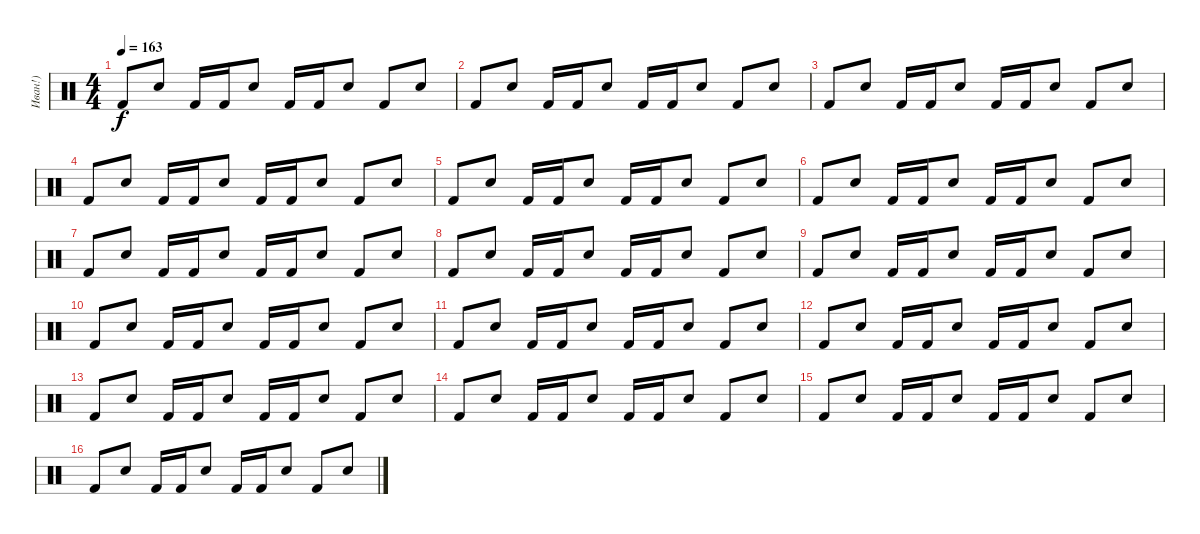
\track ("Иван!)" "Иван!)") {instrument percussion}
\staff {score}
\articulation defaults
\ts (4 4)
\tempo 163
\clef neutral
\ks c "Kick (hit) 2".8{dy f} "Electric Snare (hit)".8 "Kick (hit) 2".16 "Kick (hit) 2".16 "Electric Snare (hit)".8 "Kick (hit) 2".16 "Kick (hit) 2".16 "Electric Snare (hit)".8 "Kick (hit) 2".8 "Electric Snare (hit)".8
|
"Kick (hit) 2".8 "Electric Snare (hit)".8 "Kick (hit) 2".16 "Kick (hit) 2".16 "Electric Snare (hit)".8 "Kick (hit) 2".16 "Kick (hit) 2".16 "Electric Snare (hit)".8 "Kick (hit) 2".8 "Electric Snare (hit)".8 |
"Kick (hit) 2".8 "Electric Snare (hit)".8 "Kick (hit) 2".16 "Kick (hit) 2".16 "Electric Snare (hit)".8 "Kick (hit) 2".16 "Kick (hit) 2".16 "Electric Snare (hit)".8 "Kick (hit) 2".8 "Electric Snare (hit)".8 |
"Kick (hit) 2".8 "Electric Snare (hit)".8 "Kick (hit) 2".16 "Kick (hit) 2".16 "Electric Snare (hit)".8 "Kick (hit) 2".16 "Kick (hit) 2".16 "Electric Snare (hit)".8 "Kick (hit) 2".8 "Electric Snare (hit)".8 |
"Kick (hit) 2".8 "Electric Snare (hit)".8 "Kick (hit) 2".16 "Kick (hit) 2".16 "Electric Snare (hit)".8 "Kick (hit) 2".16 "Kick (hit) 2".16 "Electric Snare (hit)".8 "Kick (hit) 2".8 "Electric Snare (hit)".8 |
"Kick (hit) 2".8 "Electric Snare (hit)".8 "Kick (hit) 2".16 "Kick (hit) 2".16 "Electric Snare (hit)".8 "Kick (hit) 2".16 "Kick (hit) 2".16 "Electric Snare (hit)".8 "Kick (hit) 2".8 "Electric Snare (hit)".8 |
"Kick (hit) 2".8 "Electric Snare (hit)".8 "Kick (hit) 2".16 "Kick (hit) 2".16 "Electric Snare (hit)".8 "Kick (hit) 2".16 "Kick (hit) 2".16 "Electric Snare (hit)".8 "Kick (hit) 2".8 "Electric Snare (hit)".8 |
"Kick (hit) 2".8 "Electric Snare (hit)".8 "Kick (hit) 2".16 "Kick (hit) 2".16 "Electric Snare (hit)".8 "Kick (hit) 2".16 "Kick (hit) 2".16 "Electric Snare (hit)".8 "Kick (hit) 2".8 "Electric Snare (hit)".8 |
"Kick (hit) 2".8 "Electric Snare (hit)".8 "Kick (hit) 2".16 "Kick (hit) 2".16 "Electric Snare (hit)".8 "Kick (hit) 2".16 "Kick (hit) 2".16 "Electric Snare (hit)".8 "Kick (hit) 2".8 "Electric Snare (hit)".8 |
"Kick (hit) 2".8 "Electric Snare (hit)".8 "Kick (hit) 2".16 "Kick (hit) 2".16 "Electric Snare (hit)".8 "Kick (hit) 2".16 "Kick (hit) 2".16 "Electric Snare (hit)".8 "Kick (hit) 2".8 "Electric Snare (hit)".8 |
"Kick (hit) 2".8 "Electric Snare (hit)".8 "Kick (hit) 2".16 "Kick (hit) 2".16 "Electric Snare (hit)".8 "Kick (hit) 2".16 "Kick (hit) 2".16 "Electric Snare (hit)".8 "Kick (hit) 2".8 "Electric Snare (hit)".8 |
"Kick (hit) 2".8 "Electric Snare (hit)".8 "Kick (hit) 2".16 "Kick (hit) 2".16 "Electric Snare (hit)".8 "Kick (hit) 2".16 "Kick (hit) 2".16 "Electric Snare (hit)".8 "Kick (hit) 2".8 "Electric Snare (hit)".8 |
"Kick (hit) 2".8 "Electric Snare (hit)".8 "Kick (hit) 2".16 "Kick (hit) 2".16 "Electric Snare (hit)".8 "Kick (hit) 2".16 "Kick (hit) 2".16 "Electric Snare (hit)".8 "Kick (hit) 2".8 "Electric Snare (hit)".8 |
"Kick (hit) 2".8 "Electric Snare (hit)".8 "Kick (hit) 2".16 "Kick (hit) 2".16 "Electric Snare (hit)".8 "Kick (hit) 2".16 "Kick (hit) 2".16 "Electric Snare (hit)".8 "Kick (hit) 2".8 "Electric Snare (hit)".8 |
"Kick (hit) 2".8 "Electric Snare (hit)".8 "Kick (hit) 2".16 "Kick (hit) 2".16 "Electric Snare (hit)".8 "Kick (hit) 2".16 "Kick (hit) 2".16 "Electric Snare (hit)".8 "Kick (hit) 2".8 "Electric Snare (hit)".8 |
"Kick (hit) 2".8 "Electric Snare (hit)".8 "Kick (hit) 2".16 "Kick (hit) 2".16 "Electric Snare (hit)".8 "Kick (hit) 2".16 "Kick (hit) 2".16 "Electric Snare (hit)".8 "Kick (hit) 2".8 "Electric Snare (hit)".8
